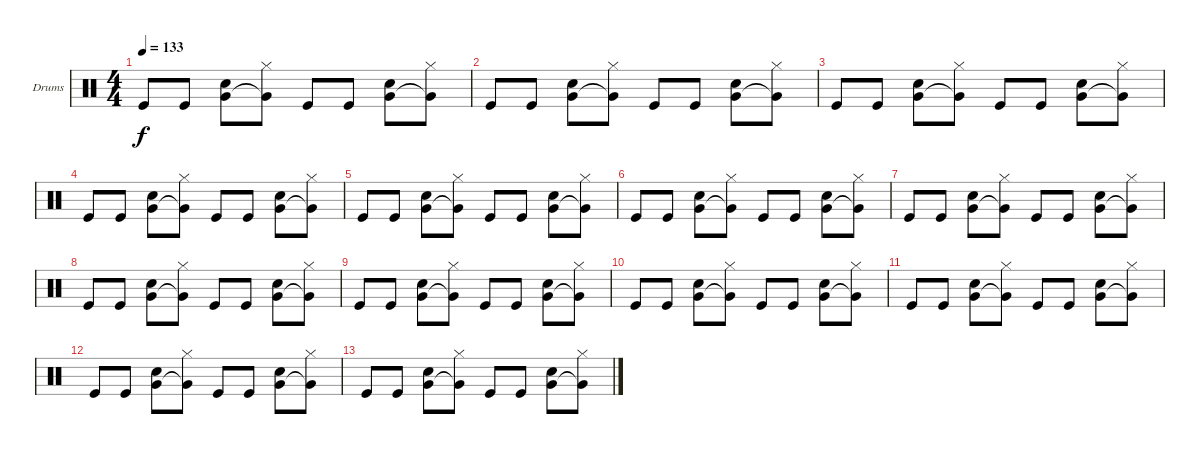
\bracketExtendMode groupsimilarinstruments
\firstSystemTrackNameOrientation horizontal
\otherSystemsTrackNameOrientation horizontal
\track ("Drumkit" "Drums") {instrument percussion}
\staff {score}
\articulation defaults
\ts (4 4)
\tempo 133
\clef neutral
\ks c "Kick (hit)".8{dy f} "Kick (hit)".8
("Snare (hit) 2" "Very Low Tom (hit)").8 ("Hi-Hat (closed)" "Very Low Tom (hit)"{t}).8 "Kick (hit)".8 "Kick (hit)".8 ("Snare (hit) 2" "Very Low Tom (hit)").8 ("Hi-Hat (closed)" "Very Low Tom (hit)"{t}).8 |
"Kick (hit)".8 "Kick (hit)".8 ("Snare (hit) 2" "Very Low Tom (hit)").8 ("Hi-Hat (closed)" "Very Low Tom (hit)"{t}).8 "Kick (hit)".8 "Kick (hit)".8 ("Snare (hit) 2" "Very Low Tom (hit)").8 ("Hi-Hat (closed)" "Very Low Tom (hit)"{t}).8 |
"Kick (hit)".8 "Kick (hit)".8 ("Snare (hit) 2" "Very Low Tom (hit)").8 ("Hi-Hat (closed)" "Very Low Tom (hit)"{t}).8 "Kick (hit)".8 "Kick (hit)".8 ("Snare (hit) 2" "Very Low Tom (hit)").8 ("Hi-Hat (closed)" "Very Low Tom (hit)"{t}).8 |
"Kick (hit)".8 "Kick (hit)".8 ("Snare (hit) 2" "Very Low Tom (hit)").8 ("Hi-Hat (closed)" "Very Low Tom (hit)"{t}).8 "Kick (hit)".8 "Kick (hit)".8 ("Snare (hit) 2" "Very Low Tom (hit)").8 ("Hi-Hat (closed)" "Very Low Tom (hit)"{t}).8 |
"Kick (hit)".8 "Kick (hit)".8 ("Snare (hit) 2" "Very Low Tom (hit)").8 ("Hi-Hat (closed)" "Very Low Tom (hit)"{t}).8 "Kick (hit)".8 "Kick (hit)".8 ("Snare (hit) 2" "Very Low Tom (hit)").8 ("Hi-Hat (closed)" "Very Low Tom (hit)"{t}).8 |
"Kick (hit)".8 "Kick (hit)".8 ("Snare (hit) 2" "Very Low Tom (hit)").8 ("Hi-Hat (closed)" "Very Low Tom (hit)"{t}).8 "Kick (hit)".8 "Kick (hit)".8 ("Snare (hit) 2" "Very Low Tom (hit)").8 ("Hi-Hat (closed)" "Very Low Tom (hit)"{t}).8 |
"Kick (hit)".8 "Kick (hit)".8 ("Snare (hit) 2" "Very Low Tom (hit)").8 ("Hi-Hat (closed)" "Very Low Tom (hit)"{t}).8 "Kick (hit)".8 "Kick (hit)".8 ("Snare (hit) 2" "Very Low Tom (hit)").8 ("Hi-Hat (closed)" "Very Low Tom (hit)"{t}).8 |
"Kick (hit)".8 "Kick (hit)".8 ("Snare (hit) 2" "Very Low Tom (hit)").8 ("Hi-Hat (closed)" "Very Low Tom (hit)"{t}).8 "Kick (hit)".8 "Kick (hit)".8 ("Snare (hit) 2" "Very Low Tom (hit)").8 ("Hi-Hat (closed)" "Very Low Tom (hit)"{t}).8 |
"Kick (hit)".8 "Kick (hit)".8 ("Snare (hit) 2" "Very Low Tom (hit)").8 ("Hi-Hat (closed)" "Very Low Tom (hit)"{t}).8 "Kick (hit)".8 "Kick (hit)".8 ("Snare (hit) 2" "Very Low Tom (hit)").8 ("Hi-Hat (closed)" "Very Low Tom (hit)"{t}).8 |
"Kick (hit)".8 "Kick (hit)".8 ("Snare (hit) 2" "Very Low Tom (hit)").8 ("Hi-Hat (closed)" "Very Low Tom (hit)"{t}).8 "Kick (hit)".8 "Kick (hit)".8 ("Snare (hit) 2" "Very Low Tom (hit)").8 ("Hi-Hat (closed)" "Very Low Tom (hit)"{t}).8 |
"Kick (hit)".8 "Kick (hit)".8 ("Snare (hit) 2" "Very Low Tom (hit)").8 ("Hi-Hat (closed)" "Very Low Tom (hit)"{t}).8 "Kick (hit)".8 "Kick (hit)".8 ("Snare (hit) 2" "Very Low Tom (hit)").8 ("Hi-Hat (closed)" "Very Low Tom (hit)"{t}).8 |
"Kick (hit)".8 "Kick (hit)".8 ("Snare (hit) 2" "Very Low Tom (hit)").8 ("Hi-Hat (closed)" "Very Low Tom (hit)"{t}).8 "Kick (hit)".8 "Kick (hit)".8 ("Snare (hit) 2" "Very Low Tom (hit)").8 ("Hi-Hat (closed)" "Very Low Tom (hit)"{t}).8 |
"Kick (hit)".8 "Kick (hit)".8 ("Snare (hit) 2" "Very Low Tom (hit)").8 ("Hi-Hat (closed)" "Very Low Tom (hit)"{t}).8 "Kick (hit)".8 "Kick (hit)".8 ("Snare (hit) 2" "Very Low Tom (hit)").8 ("Hi-Hat (closed)" "Very Low Tom (hit)"{t}).8
